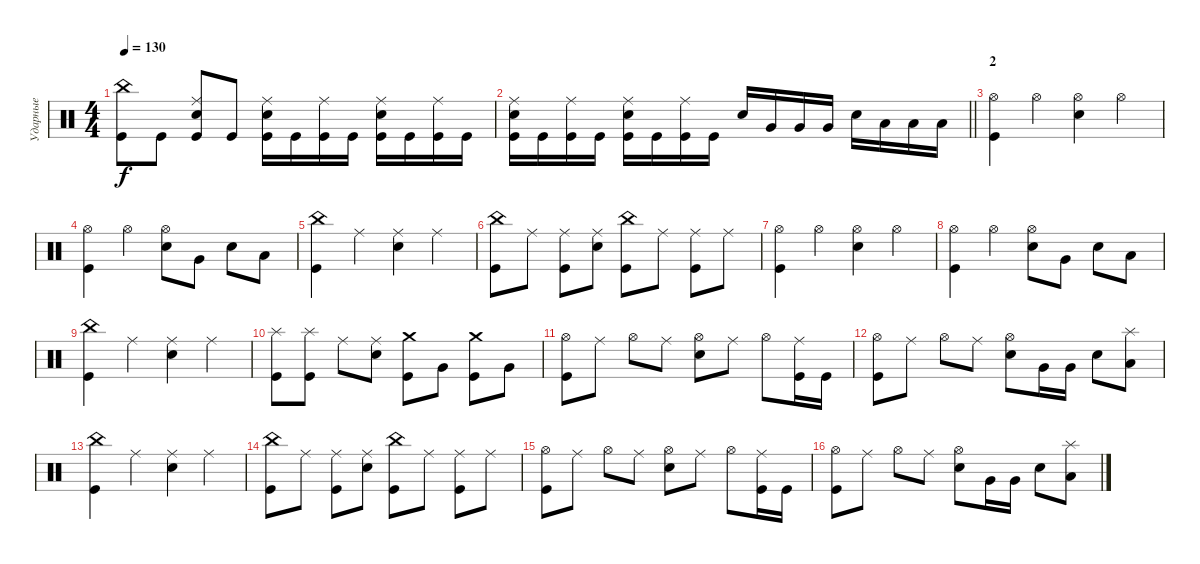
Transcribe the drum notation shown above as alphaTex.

\track ("Ударные" "Ударные") {instrument percussion}
\staff {score}
\articulation defaults
\ts (4 4)
\tempo 130
\clef neutral
\ks c
("China (hit)" "Kick (hit)").8{dy f} "Kick (hit)".8 ("Ride (middle)" "Electric Snare (hit)" "Kick (hit)").8 "Kick (hit)".8 ("Ride (middle)" "Electric Snare (hit)" "Kick (hit)").16 "Kick (hit)".16 ("Ride (middle)" "Kick (hit)").16 "Kick (hit)".16 ("Ride (middle)" "Electric Snare (hit)" "Kick (hit)").16 "Kick (hit)".16 ("Ride (middle)" "Kick (hit)").16 "Kick (hit)".16 |
\barLineRight lightlight
("Ride (middle)" "Electric Snare (hit)" "Kick (hit)").16 "Kick (hit)".16 ("Ride (middle)" "Kick (hit)").16 "Kick (hit)".16 ("Ride (middle)" "Electric Snare (hit)" "Kick (hit)").16 "Kick (hit)".16 ("Ride (middle)" "Kick (hit)").16 "Kick (hit)".16 "Electric Snare (hit)".16 "Very Low Tom (hit)".16 "Very Low Tom (hit)".16 "Very Low Tom (hit)".16 "Electric Snare (hit)".16 "Low Floor Tom (hit)".16 "Low Floor Tom (hit)".16 "Low Floor Tom (hit)".16 |
\section ("" "2")
("Hi-Hat (open)" "Kick (hit)").4 "Hi-Hat (open)".4 ("Hi-Hat (open)" "Electric Snare (hit)").4 "Hi-Hat (open)".4 |
("Hi-Hat (open)" "Kick (hit)").4 "Hi-Hat (open)".4 ("Hi-Hat (open)" "Electric Snare (hit)").8 "Very Low Tom (hit)".8 "Electric Snare (hit)".8 "Low Floor Tom (hit)".8 |
("China (hit)" "Kick (hit)").4 "Ride (middle)".4 ("Ride (middle)" "Electric Snare (hit)").4 "Ride (middle)".4 |
("China (hit)" "Kick (hit)").8 "Ride (middle)".8 ("Ride (middle)" "Kick (hit)").8 ("Ride (middle)" "Electric Snare (hit)").8 ("China (hit)" "Kick (hit)").8 "Ride (middle)".8 ("Ride (middle)" "Kick (hit)").8 "Ride (middle)".8 |
("Hi-Hat (open)" "Kick (hit)").4 "Hi-Hat (open)".4 ("Hi-Hat (open)" "Electric Snare (hit)").4 "Hi-Hat (open)".4 |
("Hi-Hat (open)" "Kick (hit)").4 "Hi-Hat (open)".4 ("Hi-Hat (open)" "Electric Snare (hit)").8 "Very Low Tom (hit)".8 "Electric Snare (hit)".8 "Low Floor Tom (hit)".8 |
("China (hit)" "Kick (hit)").4 "Ride (middle)".4 ("Ride (middle)" "Electric Snare (hit)").4 "Ride (middle)".4 |
("Splash (hit)" "Kick (hit)").8 ("Splash (hit)" "Kick (hit)").8 "Ride (middle)".8 ("Ride (middle)" "Electric Snare (hit)").8 ("Crash medium (hit)" "Kick (hit)").8 "Very Low Tom (hit)".8 ("Crash medium (hit)" "Kick (hit)").8 "Very Low Tom (hit)".8 |
("Hi-Hat (open)" "Kick (hit)").8 "Ride (middle)".8 "Hi-Hat (open)".8 "Ride (middle)".8 ("Hi-Hat (open)" "Electric Snare (hit)").8 "Ride (middle)".8 "Hi-Hat (open)".8 ("Ride (middle)" "Kick (hit)").16 "Kick (hit)".16 |
("Hi-Hat (open)" "Kick (hit)").8 "Ride (middle)".8 "Hi-Hat (open)".8 "Ride (middle)".8 ("Hi-Hat (open)" "Electric Snare (hit)").8 "Very Low Tom (hit)".16 "Very Low Tom (hit)".16 "Electric Snare (hit)".8 ("Splash (hit)" "Low Floor Tom (hit)").8 |
("China (hit)" "Kick (hit)").4 "Ride (middle)".4 ("Ride (middle)" "Electric Snare (hit)").4 "Ride (middle)".4 |
("China (hit)" "Kick (hit)").8 "Ride (middle)".8 ("Ride (middle)" "Kick (hit)").8 ("Ride (middle)" "Electric Snare (hit)").8 ("China (hit)" "Kick (hit)").8 "Ride (middle)".8 ("Ride (middle)" "Kick (hit)").8 "Ride (middle)".8 |
("Hi-Hat (open)" "Kick (hit)").8 "Ride (middle)".8 "Hi-Hat (open)".8 "Ride (middle)".8 ("Hi-Hat (open)" "Electric Snare (hit)").8 "Ride (middle)".8 "Hi-Hat (open)".8 ("Ride (middle)" "Kick (hit)").16 "Kick (hit)".16 |
("Hi-Hat (open)" "Kick (hit)").8 "Ride (middle)".8 "Hi-Hat (open)".8 "Ride (middle)".8 ("Hi-Hat (open)" "Electric Snare (hit)").8 "Very Low Tom (hit)".16 "Very Low Tom (hit)".16 "Electric Snare (hit)".8 ("Splash (hit)" "Low Floor Tom (hit)").8
